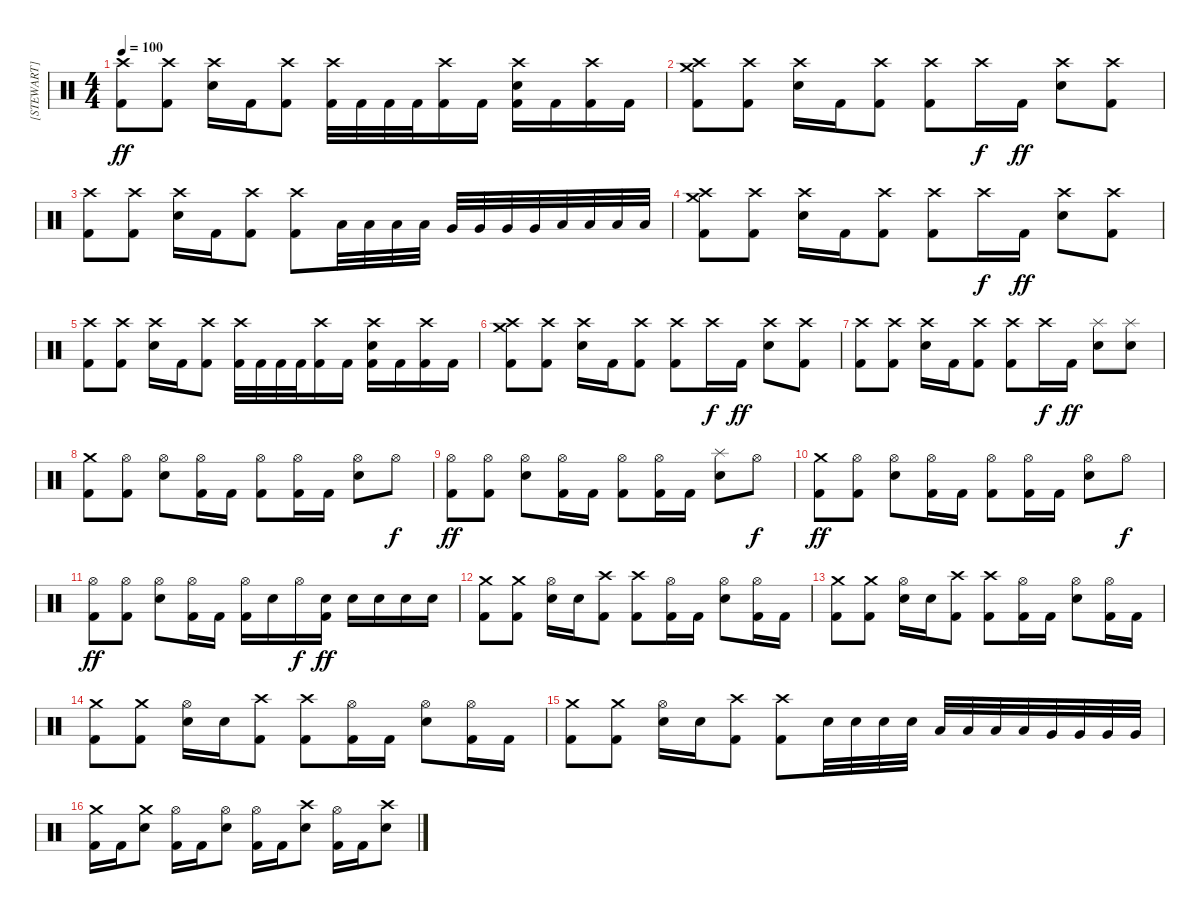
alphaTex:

\track ("[STEWART]" "[STEWART]") {instrument percussion}
\staff {score}
\articulation defaults
\ts (4 4)
\tempo 100
\clef neutral
\ks c
("Crash high (hit)" "Kick (hit) 2").8{dy ff} ("Crash high (hit)" "Kick (hit) 2").8 ("Crash high (hit)" "Electric Snare (hit)").16 "Kick (hit) 2".16 ("Crash high (hit)" "Kick (hit) 2").8 ("Crash high (hit)" "Kick (hit) 2").32 "Kick (hit) 2".32 "Kick (hit) 2".32 "Kick (hit) 2".32 ("Crash high (hit)" "Kick (hit) 2").16 "Kick (hit) 2".16 ("Crash high (hit)" "Electric Snare (hit)" "Kick (hit) 2").16 "Kick (hit) 2".16 ("Crash high (hit)" "Kick (hit) 2").16 "Kick (hit) 2".16 |
("Crash high (hit)" "Crash medium (hit)" "Kick (hit) 2").8 ("Crash high (hit)" "Kick (hit) 2").8 ("Crash high (hit)" "Electric Snare (hit)").16 "Kick (hit) 2".16 ("Crash high (hit)" "Kick (hit) 2").8 ("Crash high (hit)" "Kick (hit) 2").8 "Crash high (hit)".16{dy f} "Kick (hit) 2".16{dy ff} ("Crash high (hit)" "Electric Snare (hit)").8 ("Crash high (hit)" "Kick (hit) 2").8 |
("Crash high (hit)" "Kick (hit) 2").8 ("Crash high (hit)" "Kick (hit) 2").8 ("Crash high (hit)" "Electric Snare (hit)").16 "Kick (hit) 2".16 ("Crash high (hit)" "Kick (hit) 2").8 ("Crash high (hit)" "Kick (hit) 2").8 "Low Tom (hit)".32 "Low Tom (hit)".32 "Low Tom (hit)".32 "Low Tom (hit)".32 "Very Low Tom (hit)".32 "Very Low Tom (hit)".32 "Very Low Tom (hit)".32 "Very Low Tom (hit)".32 "Low Floor Tom (hit)".32 "Low Floor Tom (hit)".32 "Low Floor Tom (hit)".32 "Low Floor Tom (hit)".32 |
("Crash high (hit)" "Crash medium (hit)" "Kick (hit) 2").8 ("Crash high (hit)" "Kick (hit) 2").8 ("Crash high (hit)" "Electric Snare (hit)").16 "Kick (hit) 2".16 ("Crash high (hit)" "Kick (hit) 2").8 ("Crash high (hit)" "Kick (hit) 2").8 "Crash high (hit)".16{dy f} "Kick (hit) 2".16{dy ff} ("Crash high (hit)" "Electric Snare (hit)").8 ("Crash high (hit)" "Kick (hit) 2").8 |
("Crash high (hit)" "Kick (hit) 2").8 ("Crash high (hit)" "Kick (hit) 2").8 ("Crash high (hit)" "Electric Snare (hit)").16 "Kick (hit) 2".16 ("Crash high (hit)" "Kick (hit) 2").8 ("Crash high (hit)" "Kick (hit) 2").32 "Kick (hit) 2".32 "Kick (hit) 2".32 "Kick (hit) 2".32 ("Crash high (hit)" "Kick (hit) 2").16 "Kick (hit) 2".16 ("Crash high (hit)" "Electric Snare (hit)" "Kick (hit) 2").16 "Kick (hit) 2".16 ("Crash high (hit)" "Kick (hit) 2").16 "Kick (hit) 2".16 |
("Crash high (hit)" "Crash medium (hit)" "Kick (hit) 2").8 ("Crash high (hit)" "Kick (hit) 2").8 ("Crash high (hit)" "Electric Snare (hit)").16 "Kick (hit) 2".16 ("Crash high (hit)" "Kick (hit) 2").8 ("Crash high (hit)" "Kick (hit) 2").8 "Crash high (hit)".16{dy f} "Kick (hit) 2".16{dy ff} ("Crash high (hit)" "Electric Snare (hit)").8 ("Crash high (hit)" "Kick (hit) 2").8 |
("Crash high (hit)" "Kick (hit) 2").8 ("Crash high (hit)" "Kick (hit) 2").8 ("Crash high (hit)" "Electric Snare (hit)").16 "Kick (hit) 2".16 ("Crash high (hit)" "Kick (hit) 2").8 ("Crash high (hit)" "Kick (hit) 2").8 "Crash high (hit)".16{dy f} "Kick (hit) 2".16{dy ff} ("Splash (hit)" "Electric Snare (hit)").8 ("Splash (hit)" "Electric Snare (hit)").8 |
("Crash medium (hit)" "Kick (hit) 2").8 ("Hi-Hat (open)" "Kick (hit) 2").8 ("Hi-Hat (open)" "Electric Snare (hit)").8 ("Hi-Hat (open)" "Kick (hit) 2").16 "Kick (hit) 2".16 ("Hi-Hat (open)" "Kick (hit) 2").8 ("Hi-Hat (open)" "Kick (hit) 2").16 "Kick (hit) 2".16 ("Hi-Hat (open)" "Electric Snare (hit)").8 "Hi-Hat (open)".8{dy f} |
("Hi-Hat (open)" "Kick (hit) 2").8{dy ff} ("Hi-Hat (open)" "Kick (hit) 2").8 ("Hi-Hat (open)" "Electric Snare (hit)").8 ("Hi-Hat (open)" "Kick (hit) 2").16 "Kick (hit) 2".16 ("Hi-Hat (open)" "Kick (hit) 2").8 ("Hi-Hat (open)" "Kick (hit) 2").16 "Kick (hit) 2".16 ("Splash (hit)" "Electric Snare (hit)").8 "Hi-Hat (open)".8{dy f} |
("Crash medium (hit)" "Kick (hit) 2").8{dy ff} ("Hi-Hat (open)" "Kick (hit) 2").8 ("Hi-Hat (open)" "Electric Snare (hit)").8 ("Hi-Hat (open)" "Kick (hit) 2").16 "Kick (hit) 2".16 ("Hi-Hat (open)" "Kick (hit) 2").8 ("Hi-Hat (open)" "Kick (hit) 2").16 "Kick (hit) 2".16 ("Hi-Hat (open)" "Electric Snare (hit)").8 "Hi-Hat (open)".8{dy f} |
("Hi-Hat (open)" "Kick (hit) 2").8{dy ff} ("Hi-Hat (open)" "Kick (hit) 2").8 ("Hi-Hat (open)" "Electric Snare (hit)").8 ("Hi-Hat (open)" "Kick (hit) 2").16 "Kick (hit) 2".16 ("Hi-Hat (open)" "Kick (hit) 2").16 "Electric Snare (hit)".16 "Hi-Hat (open)".16{dy f} ("Electric Snare (hit)" "Kick (hit) 2").16{dy ff} "Electric Snare (hit)".16 "Electric Snare (hit)".16 "Electric Snare (hit)".16 "Electric Snare (hit)".16 |
("Crash medium (hit)" "Kick (hit) 2").8 ("Crash medium (hit)" "Kick (hit) 2").8 ("Hi-Hat (open)" "Electric Snare (hit)").16 "Electric Snare (hit)".16 ("Crash high (hit)" "Kick (hit) 2").8 ("Crash high (hit)" "Kick (hit) 2").8 ("Hi-Hat (open)" "Kick (hit) 2").16 "Kick (hit) 2".16 ("Hi-Hat (open)" "Electric Snare (hit)").8 ("Hi-Hat (open)" "Kick (hit) 2").16 "Kick (hit) 2".16 |
("Crash medium (hit)" "Kick (hit) 2").8 ("Crash medium (hit)" "Kick (hit) 2").8 ("Hi-Hat (open)" "Electric Snare (hit)").16 "Electric Snare (hit)".16 ("Crash high (hit)" "Kick (hit) 2").8 ("Crash high (hit)" "Kick (hit) 2").8 ("Hi-Hat (open)" "Kick (hit) 2").16 "Kick (hit) 2".16 ("Hi-Hat (open)" "Electric Snare (hit)").8 ("Hi-Hat (open)" "Kick (hit) 2").16 "Kick (hit) 2".16 |
("Crash medium (hit)" "Kick (hit) 2").8 ("Crash medium (hit)" "Kick (hit) 2").8 ("Hi-Hat (open)" "Electric Snare (hit)").16 "Electric Snare (hit)".16 ("Crash high (hit)" "Kick (hit) 2").8 ("Crash high (hit)" "Kick (hit) 2").8 ("Hi-Hat (open)" "Kick (hit) 2").16 "Kick (hit) 2".16 ("Hi-Hat (open)" "Electric Snare (hit)").8 ("Hi-Hat (open)" "Kick (hit) 2").16 "Kick (hit) 2".16 |
("Crash medium (hit)" "Kick (hit) 2").8 ("Crash medium (hit)" "Kick (hit) 2").8 ("Hi-Hat (open)" "Electric Snare (hit)").16 "Electric Snare (hit)".16 ("Crash high (hit)" "Kick (hit) 2").8 ("Crash high (hit)" "Kick (hit) 2").8 "Electric Snare (hit)".32 "Electric Snare (hit)".32 "Electric Snare (hit)".32 "Electric Snare (hit)".32 "Low Tom (hit)".32 "Low Tom (hit)".32 "Low Tom (hit)".32 "Low Tom (hit)".32 "Very Low Tom (hit)".32 "Very Low Tom (hit)".32 "Very Low Tom (hit)".32 "Very Low Tom (hit)".32 |
("Crash medium (hit)" "Kick (hit) 2").16 "Kick (hit) 2".16 ("Crash medium (hit)" "Electric Snare (hit)").8 ("Hi-Hat (open)" "Kick (hit) 2").16 "Kick (hit) 2".16 ("Hi-Hat (open)" "Electric Snare (hit)").8 ("Hi-Hat (open)" "Kick (hit) 2").16 "Kick (hit) 2".16 ("Crash high (hit)" "Electric Snare (hit)").8 ("Hi-Hat (open)" "Kick (hit) 2").16 "Kick (hit) 2".16 ("Crash high (hit)" "Electric Snare (hit)").8
